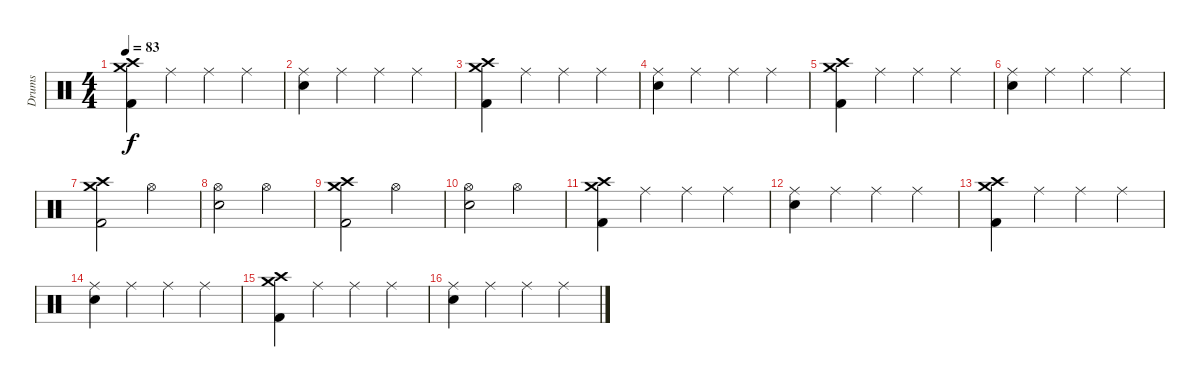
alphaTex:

\track ("Drums" "Drums") {instrument percussion}
\staff {score}
\articulation defaults
\ts (4 4)
\tempo 83
\clef neutral
\ks c
("Crash medium (hit)" "Crash high (hit)" "Kick (hit) 2").4{dy f} "Ride (middle)".4 "Ride (middle)".4 "Ride (middle)".4 |
("Ride (middle)" "Snare (hit) 2").4 "Ride (middle)".4 "Ride (middle)".4 "Ride (middle)".4 |
("Crash medium (hit)" "Crash high (hit)" "Kick (hit) 2").4 "Ride (middle)".4 "Ride (middle)".4 "Ride (middle)".4 |
("Ride (middle)" "Snare (hit) 2").4 "Ride (middle)".4 "Ride (middle)".4 "Ride (middle)".4 |
("Crash medium (hit)" "Crash high (hit)" "Kick (hit) 2").4 "Ride (middle)".4 "Ride (middle)".4 "Ride (middle)".4 |
("Ride (middle)" "Snare (hit) 2").4 "Ride (middle)".4 "Ride (middle)".4 "Ride (middle)".4 |
("Crash medium (hit)" "Crash high (hit)" "Kick (hit) 2").2 "Hi-Hat (open)".2 |
("Hi-Hat (open)" "Snare (hit) 2").2 "Hi-Hat (open)".2 |
("Crash medium (hit)" "Crash high (hit)" "Kick (hit) 2").2 "Hi-Hat (open)".2 |
("Hi-Hat (open)" "Snare (hit) 2").2 "Hi-Hat (open)".2 |
("Crash medium (hit)" "Crash high (hit)" "Kick (hit) 2").4 "Ride (middle)".4 "Ride (middle)".4 "Ride (middle)".4 |
("Ride (middle)" "Snare (hit) 2").4 "Ride (middle)".4 "Ride (middle)".4 "Ride (middle)".4 |
("Crash medium (hit)" "Crash high (hit)" "Kick (hit) 2").4 "Ride (middle)".4 "Ride (middle)".4 "Ride (middle)".4 |
("Ride (middle)" "Snare (hit) 2").4 "Ride (middle)".4 "Ride (middle)".4 "Ride (middle)".4 |
("Crash medium (hit)" "Crash high (hit)" "Kick (hit) 2").4 "Ride (middle)".4 "Ride (middle)".4 "Ride (middle)".4 |
("Ride (middle)" "Snare (hit) 2").4 "Ride (middle)".4 "Ride (middle)".4 "Ride (middle)".4
